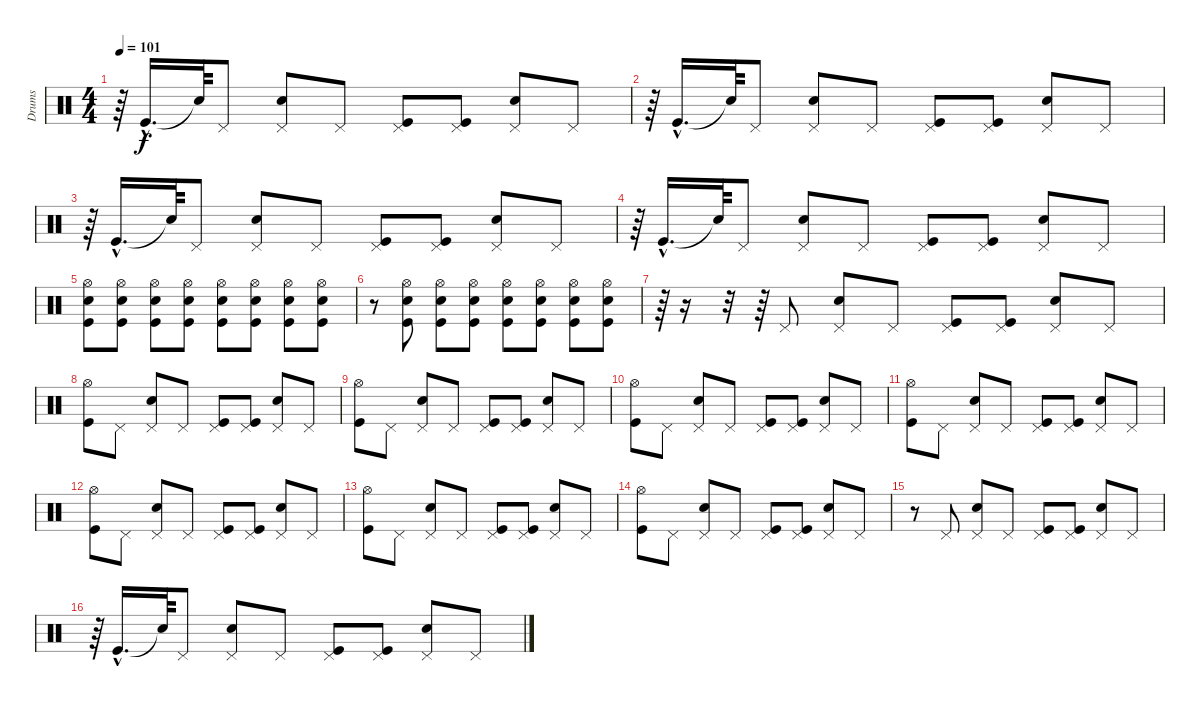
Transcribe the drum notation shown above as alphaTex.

\track ("Drums" "Drums") {instrument percussion}
\staff {score}
\articulation defaults
\ts (4 4)
\tempo 101
\clef neutral
\ks c
r.64{dy f} "Kick (hit)"{hac}.16{d} "Snare (hit)"{t}.64 "Pedal Hi-Hat (hit)".8 ("Electric Snare (hit)" "Pedal Hi-Hat (hit)").8 "Pedal Hi-Hat (hit)".8 ("Kick (hit)" "Pedal Hi-Hat (hit)").8 ("Kick (hit)" "Pedal Hi-Hat (hit)").8 ("Electric Snare (hit)" "Pedal Hi-Hat (hit)").8 "Pedal Hi-Hat (hit)".8 |
r.64 "Kick (hit)"{hac}.16{d} "Snare (hit)"{t}.64 "Pedal Hi-Hat (hit)".8 ("Electric Snare (hit)" "Pedal Hi-Hat (hit)").8 "Pedal Hi-Hat (hit)".8 ("Kick (hit)" "Pedal Hi-Hat (hit)").8 ("Kick (hit)" "Pedal Hi-Hat (hit)").8 ("Electric Snare (hit)" "Pedal Hi-Hat (hit)").8 "Pedal Hi-Hat (hit)".8 |
r.64 "Kick (hit)"{hac}.16{d} "Snare (hit)"{t}.64 "Pedal Hi-Hat (hit)".8 ("Electric Snare (hit)" "Pedal Hi-Hat (hit)").8 "Pedal Hi-Hat (hit)".8 ("Kick (hit)" "Pedal Hi-Hat (hit)").8 ("Kick (hit)" "Pedal Hi-Hat (hit)").8 ("Electric Snare (hit)" "Pedal Hi-Hat (hit)").8 "Pedal Hi-Hat (hit)".8 |
r.64 "Kick (hit)"{hac}.16{d} "Snare (hit)"{t}.64 "Pedal Hi-Hat (hit)".8 ("Electric Snare (hit)" "Pedal Hi-Hat (hit)").8 "Pedal Hi-Hat (hit)".8 ("Kick (hit)" "Pedal Hi-Hat (hit)").8 ("Kick (hit)" "Pedal Hi-Hat (hit)").8 ("Electric Snare (hit)" "Pedal Hi-Hat (hit)").8 "Pedal Hi-Hat (hit)".8 |
("Kick (hit)" "Electric Snare (hit)" "Hi-Hat (open)").8 ("Kick (hit)" "Electric Snare (hit)" "Hi-Hat (open)").8 ("Kick (hit)" "Electric Snare (hit)" "Hi-Hat (open)").8 ("Kick (hit)" "Electric Snare (hit)" "Hi-Hat (open)").8 ("Kick (hit)" "Electric Snare (hit)" "Hi-Hat (open)").8 ("Kick (hit)" "Electric Snare (hit)" "Hi-Hat (open)").8 ("Kick (hit)" "Electric Snare (hit)" "Hi-Hat (open)").8 ("Kick (hit)" "Electric Snare (hit)" "Hi-Hat (open)").8 |
r.8 ("Kick (hit)" "Electric Snare (hit)" "Hi-Hat (open)").8 ("Kick (hit)" "Electric Snare (hit)" "Hi-Hat (open)").8 ("Kick (hit)" "Electric Snare (hit)" "Hi-Hat (open)").8 ("Kick (hit)" "Electric Snare (hit)" "Hi-Hat (open)").8 ("Kick (hit)" "Electric Snare (hit)" "Hi-Hat (open)").8 ("Kick (hit)" "Electric Snare (hit)" "Hi-Hat (open)").8 ("Kick (hit)" "Electric Snare (hit)" "Hi-Hat (open)").8 |
r.64 r.16 r.32 r.64 "Pedal Hi-Hat (hit)".8 ("Electric Snare (hit)" "Pedal Hi-Hat (hit)").8 "Pedal Hi-Hat (hit)".8 ("Kick (hit)" "Pedal Hi-Hat (hit)").8 ("Kick (hit)" "Pedal Hi-Hat (hit)").8 ("Electric Snare (hit)" "Pedal Hi-Hat (hit)").8 "Pedal Hi-Hat (hit)".8 |
("Kick (hit)" "Hi-Hat (open)").8 "Pedal Hi-Hat (hit)".8 ("Electric Snare (hit)" "Pedal Hi-Hat (hit)").8 "Pedal Hi-Hat (hit)".8 ("Kick (hit)" "Pedal Hi-Hat (hit)").8 ("Kick (hit)" "Pedal Hi-Hat (hit)").8 ("Electric Snare (hit)" "Pedal Hi-Hat (hit)").8 "Pedal Hi-Hat (hit)".8 |
("Kick (hit)" "Hi-Hat (open)").8 "Pedal Hi-Hat (hit)".8 ("Electric Snare (hit)" "Pedal Hi-Hat (hit)").8 "Pedal Hi-Hat (hit)".8 ("Kick (hit)" "Pedal Hi-Hat (hit)").8 ("Kick (hit)" "Pedal Hi-Hat (hit)").8 ("Electric Snare (hit)" "Pedal Hi-Hat (hit)").8 "Pedal Hi-Hat (hit)".8 |
("Kick (hit)" "Hi-Hat (open)").8 "Pedal Hi-Hat (hit)".8 ("Electric Snare (hit)" "Pedal Hi-Hat (hit)").8 "Pedal Hi-Hat (hit)".8 ("Kick (hit)" "Pedal Hi-Hat (hit)").8 ("Kick (hit)" "Pedal Hi-Hat (hit)").8 ("Electric Snare (hit)" "Pedal Hi-Hat (hit)").8 "Pedal Hi-Hat (hit)".8 |
("Kick (hit)" "Hi-Hat (open)").8 "Pedal Hi-Hat (hit)".8 ("Electric Snare (hit)" "Pedal Hi-Hat (hit)").8 "Pedal Hi-Hat (hit)".8 ("Kick (hit)" "Pedal Hi-Hat (hit)").8 ("Kick (hit)" "Pedal Hi-Hat (hit)").8 ("Electric Snare (hit)" "Pedal Hi-Hat (hit)").8 "Pedal Hi-Hat (hit)".8 |
("Kick (hit)" "Hi-Hat (open)").8 "Pedal Hi-Hat (hit)".8 ("Electric Snare (hit)" "Pedal Hi-Hat (hit)").8 "Pedal Hi-Hat (hit)".8 ("Kick (hit)" "Pedal Hi-Hat (hit)").8 ("Kick (hit)" "Pedal Hi-Hat (hit)").8 ("Electric Snare (hit)" "Pedal Hi-Hat (hit)").8 "Pedal Hi-Hat (hit)".8 |
("Kick (hit)" "Hi-Hat (open)").8 "Pedal Hi-Hat (hit)".8 ("Electric Snare (hit)" "Pedal Hi-Hat (hit)").8 "Pedal Hi-Hat (hit)".8 ("Kick (hit)" "Pedal Hi-Hat (hit)").8 ("Kick (hit)" "Pedal Hi-Hat (hit)").8 ("Electric Snare (hit)" "Pedal Hi-Hat (hit)").8 "Pedal Hi-Hat (hit)".8 |
("Kick (hit)" "Hi-Hat (open)").8 "Pedal Hi-Hat (hit)".8 ("Electric Snare (hit)" "Pedal Hi-Hat (hit)").8 "Pedal Hi-Hat (hit)".8 ("Kick (hit)" "Pedal Hi-Hat (hit)").8 ("Kick (hit)" "Pedal Hi-Hat (hit)").8 ("Electric Snare (hit)" "Pedal Hi-Hat (hit)").8 "Pedal Hi-Hat (hit)".8 |
r.8 "Pedal Hi-Hat (hit)".8 ("Electric Snare (hit)" "Pedal Hi-Hat (hit)").8 "Pedal Hi-Hat (hit)".8 ("Kick (hit)" "Pedal Hi-Hat (hit)").8 ("Kick (hit)" "Pedal Hi-Hat (hit)").8 ("Electric Snare (hit)" "Pedal Hi-Hat (hit)").8 "Pedal Hi-Hat (hit)".8 |
r.64 "Kick (hit)"{hac}.16{d} "Snare (hit)"{t}.64 "Pedal Hi-Hat (hit)".8 ("Electric Snare (hit)" "Pedal Hi-Hat (hit)").8 "Pedal Hi-Hat (hit)".8 ("Kick (hit)" "Pedal Hi-Hat (hit)").8 ("Kick (hit)" "Pedal Hi-Hat (hit)").8 ("Electric Snare (hit)" "Pedal Hi-Hat (hit)").8 "Pedal Hi-Hat (hit)".8
